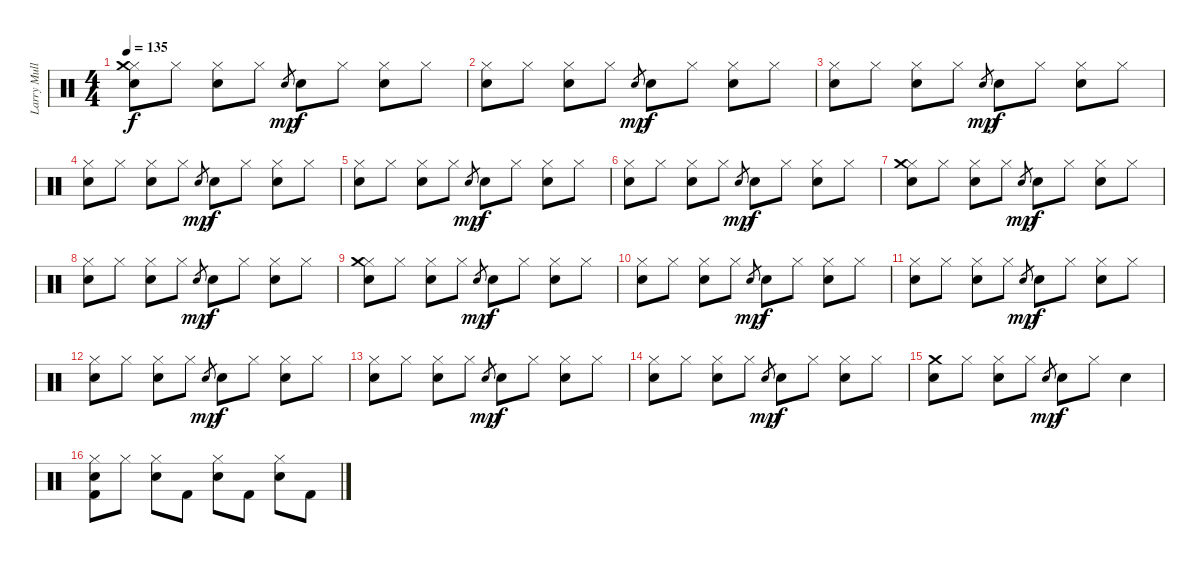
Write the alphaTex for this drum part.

\track ("Larry Mullen Jr." "Larry Mull") {instrument percussion}
\staff {score}
\articulation defaults
\ts (4 4)
\tempo 135
\clef neutral
\ks c
("Electric Snare (hit)" "Hi-Hat (closed)" "Crash medium (hit)").8{dy f} "Hi-Hat (closed)".8 ("Electric Snare (hit)" "Hi-Hat (closed)").8 "Hi-Hat (closed)".8 "Electric Snare (hit)".8{gr dy mp} "Electric Snare (hit)".8{dy f} "Hi-Hat (closed)".8 ("Electric Snare (hit)" "Hi-Hat (closed)").8 "Hi-Hat (closed)".8 |
("Electric Snare (hit)" "Hi-Hat (closed)").8 "Hi-Hat (closed)".8 ("Electric Snare (hit)" "Hi-Hat (closed)").8 "Hi-Hat (closed)".8 "Electric Snare (hit)".8{gr dy mp} "Electric Snare (hit)".8{dy f} "Hi-Hat (closed)".8 ("Electric Snare (hit)" "Hi-Hat (closed)").8 "Hi-Hat (closed)".8 |
("Electric Snare (hit)" "Hi-Hat (closed)").8 "Hi-Hat (closed)".8 ("Electric Snare (hit)" "Hi-Hat (closed)").8 "Hi-Hat (closed)".8 "Electric Snare (hit)".8{gr dy mp} "Electric Snare (hit)".8{dy f} "Hi-Hat (closed)".8 ("Electric Snare (hit)" "Hi-Hat (closed)").8 "Hi-Hat (closed)".8 |
("Electric Snare (hit)" "Hi-Hat (closed)").8 "Hi-Hat (closed)".8 ("Electric Snare (hit)" "Hi-Hat (closed)").8 "Hi-Hat (closed)".8 "Electric Snare (hit)".8{gr dy mp} "Electric Snare (hit)".8{dy f} "Hi-Hat (closed)".8 ("Electric Snare (hit)" "Hi-Hat (closed)").8 "Hi-Hat (closed)".8 |
("Electric Snare (hit)" "Hi-Hat (closed)").8 "Hi-Hat (closed)".8 ("Electric Snare (hit)" "Hi-Hat (closed)").8 "Hi-Hat (closed)".8 "Electric Snare (hit)".8{gr dy mp} "Electric Snare (hit)".8{dy f} "Hi-Hat (closed)".8 ("Electric Snare (hit)" "Hi-Hat (closed)").8 "Hi-Hat (closed)".8 |
("Electric Snare (hit)" "Hi-Hat (closed)").8 "Hi-Hat (closed)".8 ("Electric Snare (hit)" "Hi-Hat (closed)").8 "Hi-Hat (closed)".8 "Electric Snare (hit)".8{gr dy mp} "Electric Snare (hit)".8{dy f} "Hi-Hat (closed)".8 ("Electric Snare (hit)" "Hi-Hat (closed)").8 "Hi-Hat (closed)".8 |
("Electric Snare (hit)" "Hi-Hat (closed)" "Crash medium (hit)").8 "Hi-Hat (closed)".8 ("Electric Snare (hit)" "Hi-Hat (closed)").8 "Hi-Hat (closed)".8 "Electric Snare (hit)".8{gr dy mp} "Electric Snare (hit)".8{dy f} "Hi-Hat (closed)".8 ("Electric Snare (hit)" "Hi-Hat (closed)").8 "Hi-Hat (closed)".8 |
("Electric Snare (hit)" "Hi-Hat (closed)").8 "Hi-Hat (closed)".8 ("Electric Snare (hit)" "Hi-Hat (closed)").8 "Hi-Hat (closed)".8 "Electric Snare (hit)".8{gr dy mp} "Electric Snare (hit)".8{dy f} "Hi-Hat (closed)".8 ("Electric Snare (hit)" "Hi-Hat (closed)").8 "Hi-Hat (closed)".8 |
("Electric Snare (hit)" "Hi-Hat (closed)" "Crash medium (hit)").8 "Hi-Hat (closed)".8 ("Electric Snare (hit)" "Hi-Hat (closed)").8 "Hi-Hat (closed)".8 "Electric Snare (hit)".8{gr dy mp} "Electric Snare (hit)".8{dy f} "Hi-Hat (closed)".8 ("Electric Snare (hit)" "Hi-Hat (closed)").8 "Hi-Hat (closed)".8 |
("Electric Snare (hit)" "Hi-Hat (closed)").8 "Hi-Hat (closed)".8 ("Electric Snare (hit)" "Hi-Hat (closed)").8 "Hi-Hat (closed)".8 "Electric Snare (hit)".8{gr dy mp} "Electric Snare (hit)".8{dy f} "Hi-Hat (closed)".8 ("Electric Snare (hit)" "Hi-Hat (closed)").8 "Hi-Hat (closed)".8 |
("Electric Snare (hit)" "Hi-Hat (closed)").8 "Hi-Hat (closed)".8 ("Electric Snare (hit)" "Hi-Hat (closed)").8 "Hi-Hat (closed)".8 "Electric Snare (hit)".8{gr dy mp} "Electric Snare (hit)".8{dy f} "Hi-Hat (closed)".8 ("Electric Snare (hit)" "Hi-Hat (closed)").8 "Hi-Hat (closed)".8 |
("Electric Snare (hit)" "Hi-Hat (closed)").8 "Hi-Hat (closed)".8 ("Electric Snare (hit)" "Hi-Hat (closed)").8 "Hi-Hat (closed)".8 "Electric Snare (hit)".8{gr dy mp} "Electric Snare (hit)".8{dy f} "Hi-Hat (closed)".8 ("Electric Snare (hit)" "Hi-Hat (closed)").8 "Hi-Hat (closed)".8 |
("Electric Snare (hit)" "Hi-Hat (closed)").8 "Hi-Hat (closed)".8 ("Electric Snare (hit)" "Hi-Hat (closed)").8 "Hi-Hat (closed)".8 "Electric Snare (hit)".8{gr dy mp} "Electric Snare (hit)".8{dy f} "Hi-Hat (closed)".8 ("Electric Snare (hit)" "Hi-Hat (closed)").8 "Hi-Hat (closed)".8 |
("Electric Snare (hit)" "Hi-Hat (closed)").8 "Hi-Hat (closed)".8 ("Electric Snare (hit)" "Hi-Hat (closed)").8 "Hi-Hat (closed)".8 "Electric Snare (hit)".8{gr dy mp} "Electric Snare (hit)".8{dy f} "Hi-Hat (closed)".8 ("Electric Snare (hit)" "Hi-Hat (closed)").8 "Hi-Hat (closed)".8 |
("Electric Snare (hit)" "Crash medium (hit)").8 "Hi-Hat (closed)".8 ("Electric Snare (hit)" "Hi-Hat (closed)").8 "Hi-Hat (closed)".8 "Electric Snare (hit)".8{gr dy mp} "Electric Snare (hit)".8{dy f} "Hi-Hat (closed)".8 "Electric Snare (hit)".4 |
("Electric Snare (hit)" "Kick (hit) 2" "Hi-Hat (closed)").8 "Hi-Hat (closed)".8 ("Electric Snare (hit)" "Hi-Hat (closed)").8 "Kick (hit) 2".8 ("Electric Snare (hit)" "Hi-Hat (closed)").8 "Kick (hit) 2".8 ("Electric Snare (hit)" "Hi-Hat (closed)").8 "Kick (hit) 2".8
